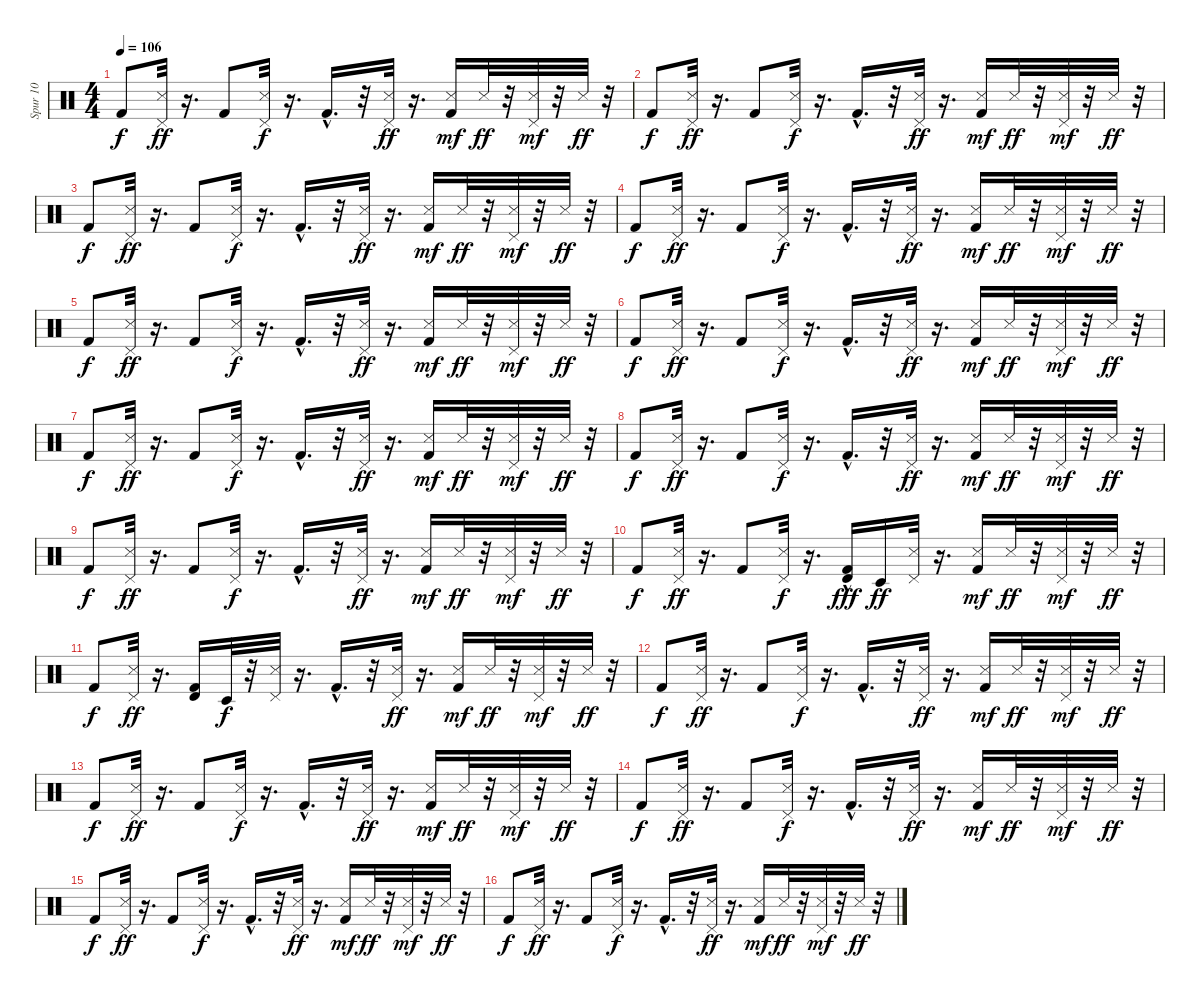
\track ("Spur 10" "Spur 10") {instrument percussion}
\staff {score}
\articulation defaults
\ts (4 4)
\tempo 106
\clef neutral
\ks c "Kick (hit) 2".8{dy f}
("Pedal Hi-Hat (hit)" "Snare (side stick) 3").32{dy ff} r.16{d} "Kick (hit) 2".8 ("Pedal Hi-Hat (hit)" "Snare (side stick) 3").32{dy f} r.16{d} "Kick (hit) 2"{hac}.16{d} r.32 ("Pedal Hi-Hat (hit)" "Snare (side stick) 3").32{dy ff} r.16{d} ("Kick (hit) 2" "Snare (side stick) 3").16{dy mf} "Snare (side stick) 3".32{dy ff} r.32 ("Pedal Hi-Hat (hit)" "Snare (side stick) 3").32{dy mf} r.32 "Snare (side stick) 3".32{dy ff} r.32 |
"Kick (hit) 2".8{dy f} ("Pedal Hi-Hat (hit)" "Snare (side stick) 3").32{dy ff} r.16{d} "Kick (hit) 2".8 ("Pedal Hi-Hat (hit)" "Snare (side stick) 3").32{dy f} r.16{d} "Kick (hit) 2"{hac}.16{d} r.32 ("Pedal Hi-Hat (hit)" "Snare (side stick) 3").32{dy ff} r.16{d} ("Kick (hit) 2" "Snare (side stick) 3").16{dy mf} "Snare (side stick) 3".32{dy ff} r.32 ("Pedal Hi-Hat (hit)" "Snare (side stick) 3").32{dy mf} r.32 "Snare (side stick) 3".32{dy ff} r.32 |
"Kick (hit) 2".8{dy f} ("Pedal Hi-Hat (hit)" "Snare (side stick) 3").32{dy ff} r.16{d} "Kick (hit) 2".8 ("Pedal Hi-Hat (hit)" "Snare (side stick) 3").32{dy f} r.16{d} "Kick (hit) 2"{hac}.16{d} r.32 ("Pedal Hi-Hat (hit)" "Snare (side stick) 3").32{dy ff} r.16{d} ("Kick (hit) 2" "Snare (side stick) 3").16{dy mf} "Snare (side stick) 3".32{dy ff} r.32 ("Pedal Hi-Hat (hit)" "Snare (side stick) 3").32{dy mf} r.32 "Snare (side stick) 3".32{dy ff} r.32 |
"Kick (hit) 2".8{dy f} ("Pedal Hi-Hat (hit)" "Snare (side stick) 3").32{dy ff} r.16{d} "Kick (hit) 2".8 ("Pedal Hi-Hat (hit)" "Snare (side stick) 3").32{dy f} r.16{d} "Kick (hit) 2"{hac}.16{d} r.32 ("Pedal Hi-Hat (hit)" "Snare (side stick) 3").32{dy ff} r.16{d} ("Kick (hit) 2" "Snare (side stick) 3").16{dy mf} "Snare (side stick) 3".32{dy ff} r.32 ("Pedal Hi-Hat (hit)" "Snare (side stick) 3").32{dy mf} r.32 "Snare (side stick) 3".32{dy ff} r.32 |
"Kick (hit) 2".8{dy f} ("Pedal Hi-Hat (hit)" "Snare (side stick) 3").32{dy ff} r.16{d} "Kick (hit) 2".8 ("Pedal Hi-Hat (hit)" "Snare (side stick) 3").32{dy f} r.16{d} "Kick (hit) 2"{hac}.16{d} r.32 ("Pedal Hi-Hat (hit)" "Snare (side stick) 3").32{dy ff} r.16{d} ("Kick (hit) 2" "Snare (side stick) 3").16{dy mf} "Snare (side stick) 3".32{dy ff} r.32 ("Pedal Hi-Hat (hit)" "Snare (side stick) 3").32{dy mf} r.32 "Snare (side stick) 3".32{dy ff} r.32 |
"Kick (hit) 2".8{dy f} ("Pedal Hi-Hat (hit)" "Snare (side stick) 3").32{dy ff} r.16{d} "Kick (hit) 2".8 ("Pedal Hi-Hat (hit)" "Snare (side stick) 3").32{dy f} r.16{d} "Kick (hit) 2"{hac}.16{d} r.32 ("Pedal Hi-Hat (hit)" "Snare (side stick) 3").32{dy ff} r.16{d} ("Kick (hit) 2" "Snare (side stick) 3").16{dy mf} "Snare (side stick) 3".32{dy ff} r.32 ("Pedal Hi-Hat (hit)" "Snare (side stick) 3").32{dy mf} r.32 "Snare (side stick) 3".32{dy ff} r.32 |
"Kick (hit) 2".8{dy f} ("Pedal Hi-Hat (hit)" "Snare (side stick) 3").32{dy ff} r.16{d} "Kick (hit) 2".8 ("Pedal Hi-Hat (hit)" "Snare (side stick) 3").32{dy f} r.16{d} "Kick (hit) 2"{hac}.16{d} r.32 ("Pedal Hi-Hat (hit)" "Snare (side stick) 3").32{dy ff} r.16{d} ("Kick (hit) 2" "Snare (side stick) 3").16{dy mf} "Snare (side stick) 3".32{dy ff} r.32 ("Pedal Hi-Hat (hit)" "Snare (side stick) 3").32{dy mf} r.32 "Snare (side stick) 3".32{dy ff} r.32 |
"Kick (hit) 2".8{dy f} ("Pedal Hi-Hat (hit)" "Snare (side stick) 3").32{dy ff} r.16{d} "Kick (hit) 2".8 ("Pedal Hi-Hat (hit)" "Snare (side stick) 3").32{dy f} r.16{d} "Kick (hit) 2"{hac}.16{d} r.32 ("Pedal Hi-Hat (hit)" "Snare (side stick) 3").32{dy ff} r.16{d} ("Kick (hit) 2" "Snare (side stick) 3").16{dy mf} "Snare (side stick) 3".32{dy ff} r.32 ("Pedal Hi-Hat (hit)" "Snare (side stick) 3").32{dy mf} r.32 "Snare (side stick) 3".32{dy ff} r.32 |
"Kick (hit) 2".8{dy f} ("Pedal Hi-Hat (hit)" "Snare (side stick) 3").32{dy ff} r.16{d} "Kick (hit) 2".8 ("Pedal Hi-Hat (hit)" "Snare (side stick) 3").32{dy f} r.16{d} "Kick (hit) 2"{hac}.16{d} r.32 ("Pedal Hi-Hat (hit)" "Snare (side stick) 3").32{dy ff} r.16{d} ("Kick (hit) 2" "Snare (side stick) 3").16{dy mf} "Snare (side stick) 3".32{dy ff} r.32 ("Pedal Hi-Hat (hit)" "Snare (side stick) 3").32{dy mf} r.32 "Snare (side stick) 3".32{dy ff} r.32 |
"Kick (hit) 2".8{dy f} ("Pedal Hi-Hat (hit)" "Snare (side stick) 3").32{dy ff} r.16{d} "Kick (hit) 2".8 ("Pedal Hi-Hat (hit)" "Snare (side stick) 3").32{dy f} r.16{d} ("Kick (hit) 2"{hac} "Timbale high (hit)"{hac}).16{dy fff} "Timbale low (hit)".16{dy ff} ("Pedal Hi-Hat (hit)" "Snare (side stick) 3").32 r.16{d} ("Kick (hit) 2" "Snare (side stick) 3").16{dy mf} "Snare (side stick) 3".32{dy ff} r.32 ("Pedal Hi-Hat (hit)" "Snare (side stick) 3").32{dy mf} r.32 "Snare (side stick) 3".32{dy ff} r.32 |
"Kick (hit) 2".8{dy f} ("Pedal Hi-Hat (hit)" "Snare (side stick) 3").32{dy ff} r.16{d} ("Kick (hit) 2" "Timbale high (hit)").16 "Timbale low (hit)".32{dy f} r.32 ("Pedal Hi-Hat (hit)" "Snare (side stick) 3").32 r.16{d} "Kick (hit) 2"{hac}.16{d} r.32 ("Pedal Hi-Hat (hit)" "Snare (side stick) 3").32{dy ff} r.16{d} ("Kick (hit) 2" "Snare (side stick) 3").16{dy mf} "Snare (side stick) 3".32{dy ff} r.32 ("Pedal Hi-Hat (hit)" "Snare (side stick) 3").32{dy mf} r.32 "Snare (side stick) 3".32{dy ff} r.32 |
"Kick (hit) 2".8{dy f} ("Pedal Hi-Hat (hit)" "Snare (side stick) 3").32{dy ff} r.16{d} "Kick (hit) 2".8 ("Pedal Hi-Hat (hit)" "Snare (side stick) 3").32{dy f} r.16{d} "Kick (hit) 2"{hac}.16{d} r.32 ("Pedal Hi-Hat (hit)" "Snare (side stick) 3").32{dy ff} r.16{d} ("Kick (hit) 2" "Snare (side stick) 3").16{dy mf} "Snare (side stick) 3".32{dy ff} r.32 ("Pedal Hi-Hat (hit)" "Snare (side stick) 3").32{dy mf} r.32 "Snare (side stick) 3".32{dy ff} r.32 |
"Kick (hit) 2".8{dy f} ("Pedal Hi-Hat (hit)" "Snare (side stick) 3").32{dy ff} r.16{d} "Kick (hit) 2".8 ("Pedal Hi-Hat (hit)" "Snare (side stick) 3").32{dy f} r.16{d} "Kick (hit) 2"{hac}.16{d} r.32 ("Pedal Hi-Hat (hit)" "Snare (side stick) 3").32{dy ff} r.16{d} ("Kick (hit) 2" "Snare (side stick) 3").16{dy mf} "Snare (side stick) 3".32{dy ff} r.32 ("Pedal Hi-Hat (hit)" "Snare (side stick) 3").32{dy mf} r.32 "Snare (side stick) 3".32{dy ff} r.32 |
"Kick (hit) 2".8{dy f} ("Pedal Hi-Hat (hit)" "Snare (side stick) 3").32{dy ff} r.16{d} "Kick (hit) 2".8 ("Pedal Hi-Hat (hit)" "Snare (side stick) 3").32{dy f} r.16{d} "Kick (hit) 2"{hac}.16{d} r.32 ("Pedal Hi-Hat (hit)" "Snare (side stick) 3").32{dy ff} r.16{d} ("Kick (hit) 2" "Snare (side stick) 3").16{dy mf} "Snare (side stick) 3".32{dy ff} r.32 ("Pedal Hi-Hat (hit)" "Snare (side stick) 3").32{dy mf} r.32 "Snare (side stick) 3".32{dy ff} r.32 |
"Kick (hit) 2".8{dy f} ("Pedal Hi-Hat (hit)" "Snare (side stick) 3").32{dy ff} r.16{d} "Kick (hit) 2".8 ("Pedal Hi-Hat (hit)" "Snare (side stick) 3").32{dy f} r.16{d} "Kick (hit) 2"{hac}.16{d} r.32 ("Pedal Hi-Hat (hit)" "Snare (side stick) 3").32{dy ff} r.16{d} ("Kick (hit) 2" "Snare (side stick) 3").16{dy mf} "Snare (side stick) 3".32{dy ff} r.32 ("Pedal Hi-Hat (hit)" "Snare (side stick) 3").32{dy mf} r.32 "Snare (side stick) 3".32{dy ff} r.32 |
"Kick (hit) 2".8{dy f} ("Pedal Hi-Hat (hit)" "Snare (side stick) 3").32{dy ff} r.16{d} "Kick (hit) 2".8 ("Pedal Hi-Hat (hit)" "Snare (side stick) 3").32{dy f} r.16{d} "Kick (hit) 2"{hac}.16{d} r.32 ("Pedal Hi-Hat (hit)" "Snare (side stick) 3").32{dy ff} r.16{d} ("Kick (hit) 2" "Snare (side stick) 3").16{dy mf} "Snare (side stick) 3".32{dy ff} r.32 ("Pedal Hi-Hat (hit)" "Snare (side stick) 3").32{dy mf} r.32 "Snare (side stick) 3".32{dy ff} r.32
